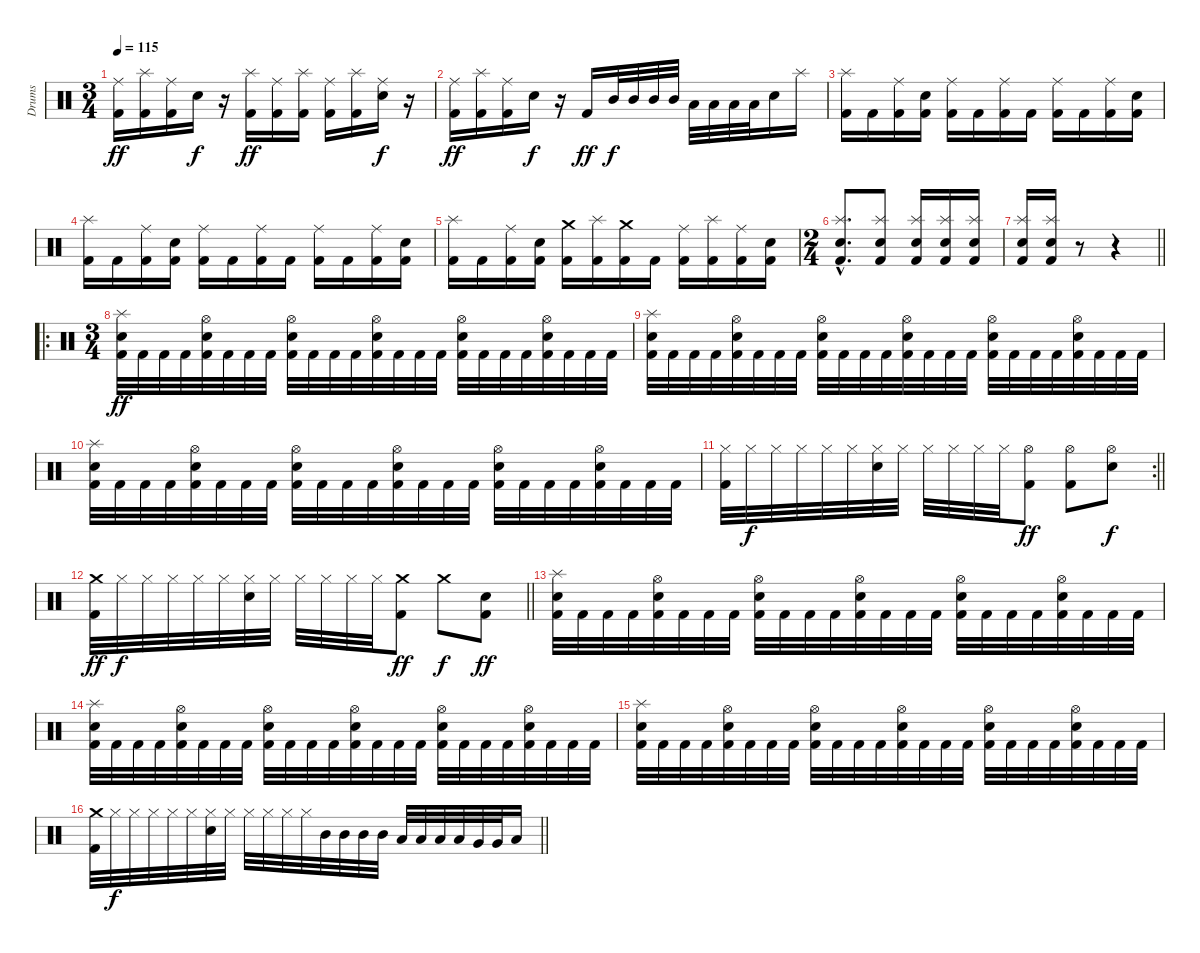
\track ("Drums" "Drums") {instrument percussion}
\staff {score}
\articulation defaults
\ts (3 4)
\tempo 115
\clef neutral
\ks c
("Ride (middle)" "Kick (hit) 2").16{dy ff} ("Splash (hit)" "Kick (hit) 2").16 ("Ride (middle)" "Kick (hit) 2").16 "Electric Snare (hit)".16{dy f} r.16 ("Splash (hit)" "Kick (hit) 2").16{dy ff} ("Ride (middle)" "Kick (hit) 2").16 ("Splash (hit)" "Kick (hit) 2").16 ("Ride (middle)" "Kick (hit) 2").16 ("Splash (hit)" "Kick (hit) 2").16 ("Ride (middle)" "Electric Snare (hit)").16{dy f} r.16 |
("Ride (middle)" "Kick (hit) 2").16{dy ff} ("Splash (hit)" "Kick (hit) 2").16 ("Ride (middle)" "Kick (hit) 2").16 "Electric Snare (hit)".16{dy f} r.16 "Kick (hit) 2".16{dy ff} "Mid Tom (hit)".32{dy f} "Mid Tom (hit)".32 "Mid Tom (hit)".32 "Mid Tom (hit)".32 "Low Tom (hit)".32 "Low Tom (hit)".32 "Low Tom (hit)".32 "Low Tom (hit)".32 "Electric Snare (hit)".16 "Splash (hit)".16 |
("Splash (hit)" "Kick (hit) 2").16 "Kick (hit) 2".16 ("Ride (middle)" "Kick (hit) 2").16 ("Electric Snare (hit)" "Kick (hit) 2").16 ("Ride (middle)" "Kick (hit) 2").16 "Kick (hit) 2".16 ("Ride (middle)" "Kick (hit) 2").16 "Kick (hit) 2".16 ("Ride (middle)" "Kick (hit) 2").16 "Kick (hit) 2".16 ("Ride (middle)" "Kick (hit) 2").16 ("Electric Snare (hit)" "Kick (hit) 2").16 |
("Splash (hit)" "Kick (hit) 2").16 "Kick (hit) 2".16 ("Ride (middle)" "Kick (hit) 2").16 ("Electric Snare (hit)" "Kick (hit) 2").16 ("Ride (middle)" "Kick (hit) 2").16 "Kick (hit) 2".16 ("Ride (middle)" "Kick (hit) 2").16 "Kick (hit) 2".16 ("Ride (middle)" "Kick (hit) 2").16 "Kick (hit) 2".16 ("Ride (middle)" "Kick (hit) 2").16 ("Electric Snare (hit)" "Kick (hit) 2").16 |
("Splash (hit)" "Kick (hit) 2").16 "Kick (hit) 2".16 ("Ride (middle)" "Kick (hit) 2").16 ("Electric Snare (hit)" "Kick (hit) 2").16 ("Crash medium (hit)" "Kick (hit) 2").16 ("Splash (hit)" "Kick (hit) 2").16 ("Crash medium (hit)" "Kick (hit) 2").16 "Kick (hit) 2".16 ("Ride (middle)" "Kick (hit) 2").16 ("Splash (hit)" "Kick (hit) 2").16 ("Ride (middle)" "Kick (hit) 2").16 ("Electric Snare (hit)" "Kick (hit) 2").16 |
\ts (2 4)
("Splash (hit)"{hac} "Electric Snare (hit)"{hac} "Kick (hit) 2"{hac}).8{d} ("Splash (hit)" "Electric Snare (hit)" "Kick (hit) 2").8 ("Splash (hit)" "Electric Snare (hit)" "Kick (hit) 2").16 ("Splash (hit)" "Electric Snare (hit)" "Kick (hit) 2").16 ("Splash (hit)" "Electric Snare (hit)" "Kick (hit) 2").16 |
\barLineRight lightlight
("Splash (hit)" "Electric Snare (hit)" "Kick (hit) 2").16 ("Splash (hit)" "Electric Snare (hit)" "Kick (hit) 2").16 r.8 r.4 |
\ro
\ts (3 4)
("Splash (hit)" "Electric Snare (hit)" "Kick (hit) 2").32{dy ff} "Kick (hit) 2".32 "Kick (hit) 2".32 "Kick (hit) 2".32 ("Hi-Hat (open)" "Electric Snare (hit)" "Kick (hit) 2").32 "Kick (hit) 2".32 "Kick (hit) 2".32 "Kick (hit) 2".32 ("Hi-Hat (open)" "Electric Snare (hit)" "Kick (hit) 2").32 "Kick (hit) 2".32 "Kick (hit) 2".32 "Kick (hit) 2".32 ("Hi-Hat (open)" "Electric Snare (hit)" "Kick (hit) 2").32 "Kick (hit) 2".32 "Kick (hit) 2".32 "Kick (hit) 2".32 ("Hi-Hat (open)" "Electric Snare (hit)" "Kick (hit) 2").32 "Kick (hit) 2".32 "Kick (hit) 2".32 "Kick (hit) 2".32 ("Hi-Hat (open)" "Electric Snare (hit)" "Kick (hit) 2").32 "Kick (hit) 2".32 "Kick (hit) 2".32 "Kick (hit) 2".32 |
("Splash (hit)" "Electric Snare (hit)" "Kick (hit) 2").32 "Kick (hit) 2".32 "Kick (hit) 2".32 "Kick (hit) 2".32 ("Hi-Hat (open)" "Electric Snare (hit)" "Kick (hit) 2").32 "Kick (hit) 2".32 "Kick (hit) 2".32 "Kick (hit) 2".32 ("Hi-Hat (open)" "Electric Snare (hit)" "Kick (hit) 2").32 "Kick (hit) 2".32 "Kick (hit) 2".32 "Kick (hit) 2".32 ("Hi-Hat (open)" "Electric Snare (hit)" "Kick (hit) 2").32 "Kick (hit) 2".32 "Kick (hit) 2".32 "Kick (hit) 2".32 ("Hi-Hat (open)" "Electric Snare (hit)" "Kick (hit) 2").32 "Kick (hit) 2".32 "Kick (hit) 2".32 "Kick (hit) 2".32 ("Hi-Hat (open)" "Electric Snare (hit)" "Kick (hit) 2").32 "Kick (hit) 2".32 "Kick (hit) 2".32 "Kick (hit) 2".32 |
("Splash (hit)" "Electric Snare (hit)" "Kick (hit) 2").32 "Kick (hit) 2".32 "Kick (hit) 2".32 "Kick (hit) 2".32 ("Hi-Hat (open)" "Electric Snare (hit)" "Kick (hit) 2").32 "Kick (hit) 2".32 "Kick (hit) 2".32 "Kick (hit) 2".32 ("Hi-Hat (open)" "Electric Snare (hit)" "Kick (hit) 2").32 "Kick (hit) 2".32 "Kick (hit) 2".32 "Kick (hit) 2".32 ("Hi-Hat (open)" "Electric Snare (hit)" "Kick (hit) 2").32 "Kick (hit) 2".32 "Kick (hit) 2".32 "Kick (hit) 2".32 ("Hi-Hat (open)" "Electric Snare (hit)" "Kick (hit) 2").32 "Kick (hit) 2".32 "Kick (hit) 2".32 "Kick (hit) 2".32 ("Hi-Hat (open)" "Electric Snare (hit)" "Kick (hit) 2").32 "Kick (hit) 2".32 "Kick (hit) 2".32 "Kick (hit) 2".32 |
\rc 2
\barLineRight lightlight
("Hi-Hat (closed)" "Kick (hit) 2").32 "Hi-Hat (closed)".32{dy f} "Hi-Hat (closed)".32 "Hi-Hat (closed)".32 "Hi-Hat (closed)".32 "Hi-Hat (closed)".32 ("Hi-Hat (closed)" "Electric Snare (hit)").32 "Hi-Hat (closed)".32 "Hi-Hat (closed)".32 "Hi-Hat (closed)".32 "Hi-Hat (closed)".32 "Hi-Hat (closed)".32 ("Hi-Hat (open)" "Kick (hit) 2").8{dy ff} ("Hi-Hat (open)" "Kick (hit) 2").8 ("Hi-Hat (open)" "Electric Snare (hit)").8{dy f} |
\barLineRight lightlight
("Crash medium (hit)" "Kick (hit) 2").32{dy ff} "Hi-Hat (closed)".32{dy f} "Hi-Hat (closed)".32 "Hi-Hat (closed)".32 "Hi-Hat (closed)".32 "Hi-Hat (closed)".32 ("Hi-Hat (closed)" "Electric Snare (hit)").32 "Hi-Hat (closed)".32 "Hi-Hat (closed)".32 "Hi-Hat (closed)".32 "Hi-Hat (closed)".32 "Hi-Hat (closed)".32 ("Crash medium (hit)" "Kick (hit) 2").8{dy ff} "Crash medium (hit)".8{dy f} ("Electric Snare (hit)" "Kick (hit) 2").8{dy ff} |
("Splash (hit)" "Electric Snare (hit)" "Kick (hit) 2").32 "Kick (hit) 2".32 "Kick (hit) 2".32 "Kick (hit) 2".32 ("Hi-Hat (open)" "Electric Snare (hit)" "Kick (hit) 2").32 "Kick (hit) 2".32 "Kick (hit) 2".32 "Kick (hit) 2".32 ("Hi-Hat (open)" "Electric Snare (hit)" "Kick (hit) 2").32 "Kick (hit) 2".32 "Kick (hit) 2".32 "Kick (hit) 2".32 ("Hi-Hat (open)" "Electric Snare (hit)" "Kick (hit) 2").32 "Kick (hit) 2".32 "Kick (hit) 2".32 "Kick (hit) 2".32 ("Hi-Hat (open)" "Electric Snare (hit)" "Kick (hit) 2").32 "Kick (hit) 2".32 "Kick (hit) 2".32 "Kick (hit) 2".32 ("Hi-Hat (open)" "Electric Snare (hit)" "Kick (hit) 2").32 "Kick (hit) 2".32 "Kick (hit) 2".32 "Kick (hit) 2".32 |
("Splash (hit)" "Electric Snare (hit)" "Kick (hit) 2").32 "Kick (hit) 2".32 "Kick (hit) 2".32 "Kick (hit) 2".32 ("Hi-Hat (open)" "Electric Snare (hit)" "Kick (hit) 2").32 "Kick (hit) 2".32 "Kick (hit) 2".32 "Kick (hit) 2".32 ("Hi-Hat (open)" "Electric Snare (hit)" "Kick (hit) 2").32 "Kick (hit) 2".32 "Kick (hit) 2".32 "Kick (hit) 2".32 ("Hi-Hat (open)" "Electric Snare (hit)" "Kick (hit) 2").32 "Kick (hit) 2".32 "Kick (hit) 2".32 "Kick (hit) 2".32 ("Hi-Hat (open)" "Electric Snare (hit)" "Kick (hit) 2").32 "Kick (hit) 2".32 "Kick (hit) 2".32 "Kick (hit) 2".32 ("Hi-Hat (open)" "Electric Snare (hit)" "Kick (hit) 2").32 "Kick (hit) 2".32 "Kick (hit) 2".32 "Kick (hit) 2".32 |
("Splash (hit)" "Electric Snare (hit)" "Kick (hit) 2").32 "Kick (hit) 2".32 "Kick (hit) 2".32 "Kick (hit) 2".32 ("Hi-Hat (open)" "Electric Snare (hit)" "Kick (hit) 2").32 "Kick (hit) 2".32 "Kick (hit) 2".32 "Kick (hit) 2".32 ("Hi-Hat (open)" "Electric Snare (hit)" "Kick (hit) 2").32 "Kick (hit) 2".32 "Kick (hit) 2".32 "Kick (hit) 2".32 ("Hi-Hat (open)" "Electric Snare (hit)" "Kick (hit) 2").32 "Kick (hit) 2".32 "Kick (hit) 2".32 "Kick (hit) 2".32 ("Hi-Hat (open)" "Electric Snare (hit)" "Kick (hit) 2").32 "Kick (hit) 2".32 "Kick (hit) 2".32 "Kick (hit) 2".32 ("Hi-Hat (open)" "Electric Snare (hit)" "Kick (hit) 2").32 "Kick (hit) 2".32 "Kick (hit) 2".32 "Kick (hit) 2".32 |
\barLineRight lightlight
("Crash medium (hit)" "Kick (hit) 2").32 "Hi-Hat (closed)".32{dy f} "Hi-Hat (closed)".32 "Hi-Hat (closed)".32 "Hi-Hat (closed)".32 "Hi-Hat (closed)".32 ("Hi-Hat (closed)" "Electric Snare (hit)").32 "Hi-Hat (closed)".32 "Hi-Hat (closed)".32 "Hi-Hat (closed)".32 "Hi-Hat (closed)".32 "Hi-Hat (closed)".32 "Mid Tom (hit)".32 "Mid Tom (hit)".32 "Mid Tom (hit)".32 "Mid Tom (hit)".32 "Low Tom (hit)".32 "Low Tom (hit)".32 "Low Tom (hit)".32 "Low Tom (hit)".32 "Very Low Tom (hit)".32 "Very Low Tom (hit)".32 "Low Floor Tom (hit)".16
